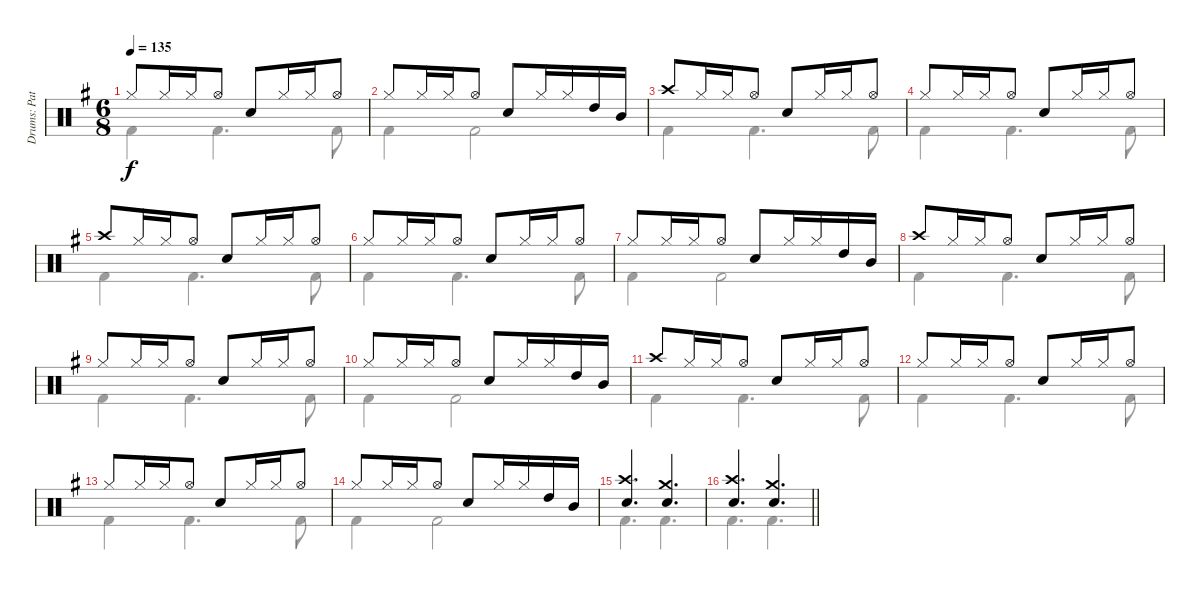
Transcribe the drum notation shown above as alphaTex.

\track ("Drums: Pat" "Drums: Pat") {instrument percussion}
\staff {score}
\articulation defaults
\voice
\ts (6 8)
\tempo 135
\clef neutral
\ks g "Hi-Hat (closed)".8{dy f} "Hi-Hat (closed)".16 "Hi-Hat (closed)".16 "Hi-Hat (open)".8 "Snare (hit) 2".8 "Hi-Hat (closed)".16 "Hi-Hat (closed)".16 "Hi-Hat (open)".8
|
"Hi-Hat (closed)".8 "Hi-Hat (closed)".16 "Hi-Hat (closed)".16 "Hi-Hat (open)".8 "Snare (hit) 2".8 "Hi-Hat (closed)".16 "Hi-Hat (closed)".16 "High Tom (hit)".16 "Mid Tom (hit)".16 |
"Crash high (hit)".8 "Hi-Hat (closed)".16 "Hi-Hat (closed)".16 "Hi-Hat (open)".8 "Snare (hit) 2".8 "Hi-Hat (closed)".16 "Hi-Hat (closed)".16 "Hi-Hat (open)".8 |
"Hi-Hat (closed)".8 "Hi-Hat (closed)".16 "Hi-Hat (closed)".16 "Hi-Hat (open)".8 "Snare (hit) 2".8 "Hi-Hat (closed)".16 "Hi-Hat (closed)".16 "Hi-Hat (open)".8 |
"Crash high (hit)".8 "Hi-Hat (closed)".16 "Hi-Hat (closed)".16 "Hi-Hat (open)".8 "Snare (hit) 2".8 "Hi-Hat (closed)".16 "Hi-Hat (closed)".16 "Hi-Hat (open)".8 |
"Hi-Hat (closed)".8 "Hi-Hat (closed)".16 "Hi-Hat (closed)".16 "Hi-Hat (open)".8 "Snare (hit) 2".8 "Hi-Hat (closed)".16 "Hi-Hat (closed)".16 "Hi-Hat (open)".8 |
"Hi-Hat (closed)".8 "Hi-Hat (closed)".16 "Hi-Hat (closed)".16 "Hi-Hat (open)".8 "Snare (hit) 2".8 "Hi-Hat (closed)".16 "Hi-Hat (closed)".16 "High Tom (hit)".16 "Mid Tom (hit)".16 |
"Crash high (hit)".8 "Hi-Hat (closed)".16 "Hi-Hat (closed)".16 "Hi-Hat (open)".8 "Snare (hit) 2".8 "Hi-Hat (closed)".16 "Hi-Hat (closed)".16 "Hi-Hat (open)".8 |
"Hi-Hat (closed)".8 "Hi-Hat (closed)".16 "Hi-Hat (closed)".16 "Hi-Hat (open)".8 "Snare (hit) 2".8 "Hi-Hat (closed)".16 "Hi-Hat (closed)".16 "Hi-Hat (open)".8 |
"Hi-Hat (closed)".8 "Hi-Hat (closed)".16 "Hi-Hat (closed)".16 "Hi-Hat (open)".8 "Snare (hit) 2".8 "Hi-Hat (closed)".16 "Hi-Hat (closed)".16 "High Tom (hit)".16 "Mid Tom (hit)".16 |
"Crash high (hit)".8 "Hi-Hat (closed)".16 "Hi-Hat (closed)".16 "Hi-Hat (open)".8 "Snare (hit) 2".8 "Hi-Hat (closed)".16 "Hi-Hat (closed)".16 "Hi-Hat (open)".8 |
"Hi-Hat (closed)".8 "Hi-Hat (closed)".16 "Hi-Hat (closed)".16 "Hi-Hat (open)".8 "Snare (hit) 2".8 "Hi-Hat (closed)".16 "Hi-Hat (closed)".16 "Hi-Hat (open)".8 |
"Hi-Hat (closed)".8 "Hi-Hat (closed)".16 "Hi-Hat (closed)".16 "Hi-Hat (open)".8 "Snare (hit) 2".8 "Hi-Hat (closed)".16 "Hi-Hat (closed)".16 "Hi-Hat (open)".8 |
"Hi-Hat (closed)".8 "Hi-Hat (closed)".16 "Hi-Hat (closed)".16 "Hi-Hat (open)".8 "Snare (hit) 2".8 "Hi-Hat (closed)".16 "Hi-Hat (closed)".16 "High Tom (hit)".16 "Mid Tom (hit)".16 |
("Crash high (hit)"{acc b} "Snare (hit) 2").4{d} ("Crash medium (hit)" "Snare (hit) 2").4{d} |
\barLineRight lightlight
("Crash high (hit)"{acc b} "Snare (hit) 2").4{d} ("Crash medium (hit)" "Snare (hit) 2").4{d}
\voice
\clef neutral
\ottava regular
\simile none
\ks g "Kick (hit) 2".4{dy f} "Kick (hit) 2".4{d} "Kick (hit) 2".8
|
"Kick (hit) 2".4 "Kick (hit) 2".2 |
"Kick (hit) 2".4 "Kick (hit) 2".4{d} "Kick (hit) 2".8 |
"Kick (hit) 2".4 "Kick (hit) 2".4{d} "Kick (hit) 2".8 |
"Kick (hit) 2".4 "Kick (hit) 2".4{d} "Kick (hit) 2".8 |
"Kick (hit) 2".4 "Kick (hit) 2".4{d} "Kick (hit) 2".8 |
"Kick (hit) 2".4 "Kick (hit) 2".2 |
"Kick (hit) 2".4 "Kick (hit) 2".4{d} "Kick (hit) 2".8 |
"Kick (hit) 2".4 "Kick (hit) 2".4{d} "Kick (hit) 2".8 |
"Kick (hit) 2".4 "Kick (hit) 2".2 |
"Kick (hit) 2".4 "Kick (hit) 2".4{d} "Kick (hit) 2".8 |
"Kick (hit) 2".4 "Kick (hit) 2".4{d} "Kick (hit) 2".8 |
"Kick (hit) 2".4 "Kick (hit) 2".4{d} "Kick (hit) 2".8 |
"Kick (hit) 2".4 "Kick (hit) 2".2 |
"Kick (hit) 2".4{d} "Kick (hit) 2".4{d} |
\barLineRight lightlight "Kick (hit) 2".4{d} "Kick (hit) 2".4{d}
